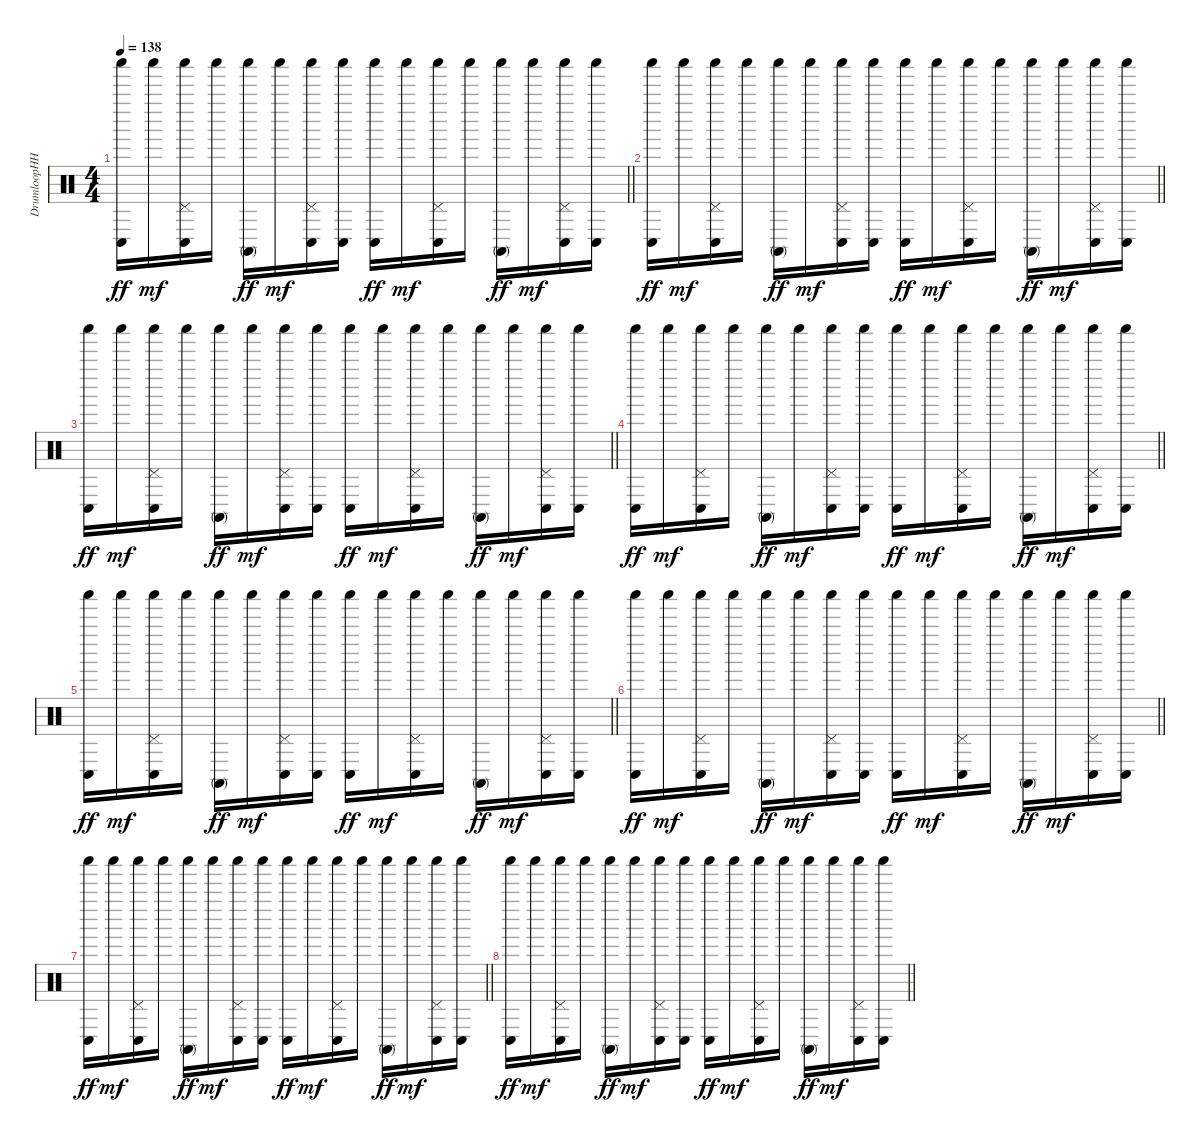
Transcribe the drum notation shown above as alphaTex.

\track ("DrumloopHH" "DrumloopHH") {instrument percussion}
\staff {score}
\articulation defaults
\ts (4 4)
\tempo 138
\clef neutral
\barLineRight lightlight
\ks c
("Conga low (hit)" "Shaker (hit)").16{dy ff} "Shaker (hit)".16{dy mf} ("Conga low (hit)" "Pedal Hi-Hat (hit)" "Shaker (hit)").16 "Shaker (hit)".16 ("Conga high (mute)" "Shaker (hit)").16{dy ff} "Shaker (hit)".16{dy mf} ("Conga low (hit)" "Pedal Hi-Hat (hit)" "Shaker (hit)").16 ("Conga low (hit)" "Shaker (hit)").16 ("Conga low (hit)" "Shaker (hit)").16{dy ff} "Shaker (hit)".16{dy mf} ("Conga low (hit)" "Pedal Hi-Hat (hit)" "Shaker (hit)").16 "Shaker (hit)".16 ("Conga high (mute)" "Shaker (hit)").16{dy ff} "Shaker (hit)".16{dy mf} ("Conga low (hit)" "Pedal Hi-Hat (hit)" "Shaker (hit)").16 ("Conga low (hit)" "Shaker (hit)").16 |
\barLineRight lightlight
("Conga low (hit)" "Shaker (hit)").16{dy ff} "Shaker (hit)".16{dy mf} ("Conga low (hit)" "Pedal Hi-Hat (hit)" "Shaker (hit)").16 "Shaker (hit)".16 ("Conga high (mute)" "Shaker (hit)").16{dy ff} "Shaker (hit)".16{dy mf} ("Conga low (hit)" "Pedal Hi-Hat (hit)" "Shaker (hit)").16 ("Conga low (hit)" "Shaker (hit)").16 ("Conga low (hit)" "Shaker (hit)").16{dy ff} "Shaker (hit)".16{dy mf} ("Conga low (hit)" "Pedal Hi-Hat (hit)" "Shaker (hit)").16 "Shaker (hit)".16 ("Conga high (mute)" "Shaker (hit)").16{dy ff} "Shaker (hit)".16{dy mf} ("Conga low (hit)" "Pedal Hi-Hat (hit)" "Shaker (hit)").16 ("Conga low (hit)" "Shaker (hit)").16 |
\barLineRight lightlight
("Conga low (hit)" "Shaker (hit)").16{dy ff} "Shaker (hit)".16{dy mf} ("Conga low (hit)" "Pedal Hi-Hat (hit)" "Shaker (hit)").16 "Shaker (hit)".16 ("Conga high (mute)" "Shaker (hit)").16{dy ff} "Shaker (hit)".16{dy mf} ("Conga low (hit)" "Pedal Hi-Hat (hit)" "Shaker (hit)").16 ("Conga low (hit)" "Shaker (hit)").16 ("Conga low (hit)" "Shaker (hit)").16{dy ff} "Shaker (hit)".16{dy mf} ("Conga low (hit)" "Pedal Hi-Hat (hit)" "Shaker (hit)").16 "Shaker (hit)".16 ("Conga high (mute)" "Shaker (hit)").16{dy ff} "Shaker (hit)".16{dy mf} ("Conga low (hit)" "Pedal Hi-Hat (hit)" "Shaker (hit)").16 ("Conga low (hit)" "Shaker (hit)").16 |
\barLineRight lightlight
("Conga low (hit)" "Shaker (hit)").16{dy ff} "Shaker (hit)".16{dy mf} ("Conga low (hit)" "Pedal Hi-Hat (hit)" "Shaker (hit)").16 "Shaker (hit)".16 ("Conga high (mute)" "Shaker (hit)").16{dy ff} "Shaker (hit)".16{dy mf} ("Conga low (hit)" "Pedal Hi-Hat (hit)" "Shaker (hit)").16 ("Conga low (hit)" "Shaker (hit)").16 ("Conga low (hit)" "Shaker (hit)").16{dy ff} "Shaker (hit)".16{dy mf} ("Conga low (hit)" "Pedal Hi-Hat (hit)" "Shaker (hit)").16 "Shaker (hit)".16 ("Conga high (mute)" "Shaker (hit)").16{dy ff} "Shaker (hit)".16{dy mf} ("Conga low (hit)" "Pedal Hi-Hat (hit)" "Shaker (hit)").16 ("Conga low (hit)" "Shaker (hit)").16 |
\barLineRight lightlight
("Conga low (hit)" "Shaker (hit)").16{dy ff} "Shaker (hit)".16{dy mf} ("Conga low (hit)" "Pedal Hi-Hat (hit)" "Shaker (hit)").16 "Shaker (hit)".16 ("Conga high (mute)" "Shaker (hit)").16{dy ff} "Shaker (hit)".16{dy mf} ("Conga low (hit)" "Pedal Hi-Hat (hit)" "Shaker (hit)").16 ("Conga low (hit)" "Shaker (hit)").16 ("Conga low (hit)" "Shaker (hit)").16{dy ff} "Shaker (hit)".16{dy mf} ("Conga low (hit)" "Pedal Hi-Hat (hit)" "Shaker (hit)").16 "Shaker (hit)".16 ("Conga high (mute)" "Shaker (hit)").16{dy ff} "Shaker (hit)".16{dy mf} ("Conga low (hit)" "Pedal Hi-Hat (hit)" "Shaker (hit)").16 ("Conga low (hit)" "Shaker (hit)").16 |
\barLineRight lightlight
("Conga low (hit)" "Shaker (hit)").16{dy ff} "Shaker (hit)".16{dy mf} ("Conga low (hit)" "Pedal Hi-Hat (hit)" "Shaker (hit)").16 "Shaker (hit)".16 ("Conga high (mute)" "Shaker (hit)").16{dy ff} "Shaker (hit)".16{dy mf} ("Conga low (hit)" "Pedal Hi-Hat (hit)" "Shaker (hit)").16 ("Conga low (hit)" "Shaker (hit)").16 ("Conga low (hit)" "Shaker (hit)").16{dy ff} "Shaker (hit)".16{dy mf} ("Conga low (hit)" "Pedal Hi-Hat (hit)" "Shaker (hit)").16 "Shaker (hit)".16 ("Conga high (mute)" "Shaker (hit)").16{dy ff} "Shaker (hit)".16{dy mf} ("Conga low (hit)" "Pedal Hi-Hat (hit)" "Shaker (hit)").16 ("Conga low (hit)" "Shaker (hit)").16 |
\barLineRight lightlight
("Conga low (hit)" "Shaker (hit)").16{dy ff} "Shaker (hit)".16{dy mf} ("Conga low (hit)" "Pedal Hi-Hat (hit)" "Shaker (hit)").16 "Shaker (hit)".16 ("Conga high (mute)" "Shaker (hit)").16{dy ff} "Shaker (hit)".16{dy mf} ("Conga low (hit)" "Pedal Hi-Hat (hit)" "Shaker (hit)").16 ("Conga low (hit)" "Shaker (hit)").16 ("Conga low (hit)" "Shaker (hit)").16{dy ff} "Shaker (hit)".16{dy mf} ("Conga low (hit)" "Pedal Hi-Hat (hit)" "Shaker (hit)").16 "Shaker (hit)".16 ("Conga high (mute)" "Shaker (hit)").16{dy ff} "Shaker (hit)".16{dy mf} ("Conga low (hit)" "Pedal Hi-Hat (hit)" "Shaker (hit)").16 ("Conga low (hit)" "Shaker (hit)").16 |
\barLineRight lightlight
("Conga low (hit)" "Shaker (hit)").16{dy ff} "Shaker (hit)".16{dy mf} ("Conga low (hit)" "Pedal Hi-Hat (hit)" "Shaker (hit)").16 "Shaker (hit)".16 ("Conga high (mute)" "Shaker (hit)").16{dy ff} "Shaker (hit)".16{dy mf} ("Conga low (hit)" "Pedal Hi-Hat (hit)" "Shaker (hit)").16 ("Conga low (hit)" "Shaker (hit)").16 ("Conga low (hit)" "Shaker (hit)").16{dy ff} "Shaker (hit)".16{dy mf} ("Conga low (hit)" "Pedal Hi-Hat (hit)" "Shaker (hit)").16 "Shaker (hit)".16 ("Conga high (mute)" "Shaker (hit)").16{dy ff} "Shaker (hit)".16{dy mf} ("Conga low (hit)" "Pedal Hi-Hat (hit)" "Shaker (hit)").16 ("Conga low (hit)" "Shaker (hit)").16
